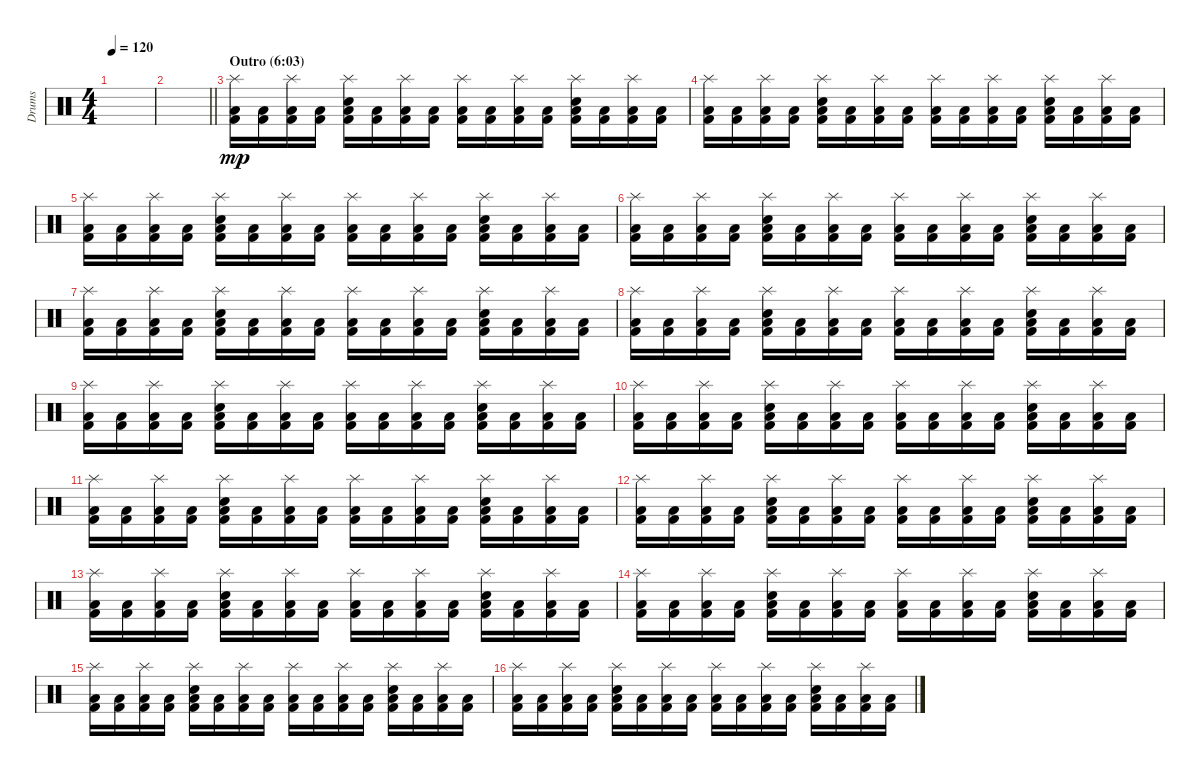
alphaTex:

\track ("Drums" "Drums") {instrument percussion}
\staff {score}
\articulation defaults
\ts (4 4)
\tempo 120
\clef neutral
\ks c
|
\barLineRight lightlight
|
\section ("" "Outro (6:03)")
("Splash (hit)" "Low Floor Tom (hit)" "Kick (hit) 2").16{dy mp volume 12} ("Low Floor Tom (hit)" "Kick (hit) 2").16 ("Splash (hit)" "Low Floor Tom (hit)" "Kick (hit) 2").16 ("Low Floor Tom (hit)" "Kick (hit) 2").16 ("Splash (hit)" "Snare (hit) 2" "Low Floor Tom (hit)" "Kick (hit) 2").16 ("Low Floor Tom (hit)" "Kick (hit) 2").16 ("Splash (hit)" "Low Floor Tom (hit)" "Kick (hit) 2").16 ("Low Floor Tom (hit)" "Kick (hit) 2").16 ("Splash (hit)" "Low Floor Tom (hit)" "Kick (hit) 2").16 ("Low Floor Tom (hit)" "Kick (hit) 2").16 ("Splash (hit)" "Low Floor Tom (hit)" "Kick (hit) 2").16 ("Low Floor Tom (hit)" "Kick (hit) 2").16 ("Splash (hit)" "Snare (hit) 2" "Low Floor Tom (hit)" "Kick (hit) 2").16 ("Low Floor Tom (hit)" "Kick (hit) 2").16 ("Splash (hit)" "Low Floor Tom (hit)" "Kick (hit) 2").16 ("Low Floor Tom (hit)" "Kick (hit) 2").16 |
("Splash (hit)" "Low Floor Tom (hit)" "Kick (hit) 2").16 ("Low Floor Tom (hit)" "Kick (hit) 2").16 ("Splash (hit)" "Low Floor Tom (hit)" "Kick (hit) 2").16 ("Low Floor Tom (hit)" "Kick (hit) 2").16 ("Splash (hit)" "Snare (hit) 2" "Low Floor Tom (hit)" "Kick (hit) 2").16 ("Low Floor Tom (hit)" "Kick (hit) 2").16 ("Splash (hit)" "Low Floor Tom (hit)" "Kick (hit) 2").16 ("Low Floor Tom (hit)" "Kick (hit) 2").16 ("Splash (hit)" "Low Floor Tom (hit)" "Kick (hit) 2").16 ("Low Floor Tom (hit)" "Kick (hit) 2").16 ("Splash (hit)" "Low Floor Tom (hit)" "Kick (hit) 2").16 ("Low Floor Tom (hit)" "Kick (hit) 2").16 ("Splash (hit)" "Snare (hit) 2" "Low Floor Tom (hit)" "Kick (hit) 2").16 ("Low Floor Tom (hit)" "Kick (hit) 2").16 ("Splash (hit)" "Low Floor Tom (hit)" "Kick (hit) 2").16 ("Low Floor Tom (hit)" "Kick (hit) 2").16 |
("Splash (hit)" "Low Floor Tom (hit)" "Kick (hit) 2").16 ("Low Floor Tom (hit)" "Kick (hit) 2").16 ("Splash (hit)" "Low Floor Tom (hit)" "Kick (hit) 2").16 ("Low Floor Tom (hit)" "Kick (hit) 2").16 ("Splash (hit)" "Snare (hit) 2" "Low Floor Tom (hit)" "Kick (hit) 2").16 ("Low Floor Tom (hit)" "Kick (hit) 2").16 ("Splash (hit)" "Low Floor Tom (hit)" "Kick (hit) 2").16 ("Low Floor Tom (hit)" "Kick (hit) 2").16 ("Splash (hit)" "Low Floor Tom (hit)" "Kick (hit) 2").16 ("Low Floor Tom (hit)" "Kick (hit) 2").16 ("Splash (hit)" "Low Floor Tom (hit)" "Kick (hit) 2").16 ("Low Floor Tom (hit)" "Kick (hit) 2").16 ("Splash (hit)" "Snare (hit) 2" "Low Floor Tom (hit)" "Kick (hit) 2").16 ("Low Floor Tom (hit)" "Kick (hit) 2").16 ("Splash (hit)" "Low Floor Tom (hit)" "Kick (hit) 2").16 ("Low Floor Tom (hit)" "Kick (hit) 2").16 |
("Splash (hit)" "Low Floor Tom (hit)" "Kick (hit) 2").16 ("Low Floor Tom (hit)" "Kick (hit) 2").16 ("Splash (hit)" "Low Floor Tom (hit)" "Kick (hit) 2").16 ("Low Floor Tom (hit)" "Kick (hit) 2").16 ("Splash (hit)" "Snare (hit) 2" "Low Floor Tom (hit)" "Kick (hit) 2").16 ("Low Floor Tom (hit)" "Kick (hit) 2").16 ("Splash (hit)" "Low Floor Tom (hit)" "Kick (hit) 2").16 ("Low Floor Tom (hit)" "Kick (hit) 2").16 ("Splash (hit)" "Low Floor Tom (hit)" "Kick (hit) 2").16 ("Low Floor Tom (hit)" "Kick (hit) 2").16 ("Splash (hit)" "Low Floor Tom (hit)" "Kick (hit) 2").16 ("Low Floor Tom (hit)" "Kick (hit) 2").16 ("Splash (hit)" "Snare (hit) 2" "Low Floor Tom (hit)" "Kick (hit) 2").16 ("Low Floor Tom (hit)" "Kick (hit) 2").16 ("Splash (hit)" "Low Floor Tom (hit)" "Kick (hit) 2").16 ("Low Floor Tom (hit)" "Kick (hit) 2").16 |
("Splash (hit)" "Low Floor Tom (hit)" "Kick (hit) 2").16 ("Low Floor Tom (hit)" "Kick (hit) 2").16 ("Splash (hit)" "Low Floor Tom (hit)" "Kick (hit) 2").16 ("Low Floor Tom (hit)" "Kick (hit) 2").16 ("Splash (hit)" "Snare (hit) 2" "Low Floor Tom (hit)" "Kick (hit) 2").16 ("Low Floor Tom (hit)" "Kick (hit) 2").16 ("Splash (hit)" "Low Floor Tom (hit)" "Kick (hit) 2").16 ("Low Floor Tom (hit)" "Kick (hit) 2").16 ("Splash (hit)" "Low Floor Tom (hit)" "Kick (hit) 2").16 ("Low Floor Tom (hit)" "Kick (hit) 2").16 ("Splash (hit)" "Low Floor Tom (hit)" "Kick (hit) 2").16 ("Low Floor Tom (hit)" "Kick (hit) 2").16 ("Splash (hit)" "Snare (hit) 2" "Low Floor Tom (hit)" "Kick (hit) 2").16 ("Low Floor Tom (hit)" "Kick (hit) 2").16 ("Splash (hit)" "Low Floor Tom (hit)" "Kick (hit) 2").16 ("Low Floor Tom (hit)" "Kick (hit) 2").16 |
("Splash (hit)" "Low Floor Tom (hit)" "Kick (hit) 2").16 ("Low Floor Tom (hit)" "Kick (hit) 2").16 ("Splash (hit)" "Low Floor Tom (hit)" "Kick (hit) 2").16 ("Low Floor Tom (hit)" "Kick (hit) 2").16 ("Splash (hit)" "Snare (hit) 2" "Low Floor Tom (hit)" "Kick (hit) 2").16 ("Low Floor Tom (hit)" "Kick (hit) 2").16 ("Splash (hit)" "Low Floor Tom (hit)" "Kick (hit) 2").16 ("Low Floor Tom (hit)" "Kick (hit) 2").16 ("Splash (hit)" "Low Floor Tom (hit)" "Kick (hit) 2").16 ("Low Floor Tom (hit)" "Kick (hit) 2").16 ("Splash (hit)" "Low Floor Tom (hit)" "Kick (hit) 2").16 ("Low Floor Tom (hit)" "Kick (hit) 2").16 ("Splash (hit)" "Snare (hit) 2" "Low Floor Tom (hit)" "Kick (hit) 2").16 ("Low Floor Tom (hit)" "Kick (hit) 2").16 ("Splash (hit)" "Low Floor Tom (hit)" "Kick (hit) 2").16 ("Low Floor Tom (hit)" "Kick (hit) 2").16 |
("Splash (hit)" "Low Floor Tom (hit)" "Kick (hit) 2").16 ("Low Floor Tom (hit)" "Kick (hit) 2").16 ("Splash (hit)" "Low Floor Tom (hit)" "Kick (hit) 2").16 ("Low Floor Tom (hit)" "Kick (hit) 2").16 ("Splash (hit)" "Snare (hit) 2" "Low Floor Tom (hit)" "Kick (hit) 2").16 ("Low Floor Tom (hit)" "Kick (hit) 2").16 ("Splash (hit)" "Low Floor Tom (hit)" "Kick (hit) 2").16 ("Low Floor Tom (hit)" "Kick (hit) 2").16 ("Splash (hit)" "Low Floor Tom (hit)" "Kick (hit) 2").16 ("Low Floor Tom (hit)" "Kick (hit) 2").16 ("Splash (hit)" "Low Floor Tom (hit)" "Kick (hit) 2").16 ("Low Floor Tom (hit)" "Kick (hit) 2").16 ("Splash (hit)" "Snare (hit) 2" "Low Floor Tom (hit)" "Kick (hit) 2").16 ("Low Floor Tom (hit)" "Kick (hit) 2").16 ("Splash (hit)" "Low Floor Tom (hit)" "Kick (hit) 2").16 ("Low Floor Tom (hit)" "Kick (hit) 2").16 |
("Splash (hit)" "Low Floor Tom (hit)" "Kick (hit) 2").16 ("Low Floor Tom (hit)" "Kick (hit) 2").16 ("Splash (hit)" "Low Floor Tom (hit)" "Kick (hit) 2").16 ("Low Floor Tom (hit)" "Kick (hit) 2").16 ("Splash (hit)" "Snare (hit) 2" "Low Floor Tom (hit)" "Kick (hit) 2").16 ("Low Floor Tom (hit)" "Kick (hit) 2").16 ("Splash (hit)" "Low Floor Tom (hit)" "Kick (hit) 2").16 ("Low Floor Tom (hit)" "Kick (hit) 2").16 ("Splash (hit)" "Low Floor Tom (hit)" "Kick (hit) 2").16 ("Low Floor Tom (hit)" "Kick (hit) 2").16 ("Splash (hit)" "Low Floor Tom (hit)" "Kick (hit) 2").16 ("Low Floor Tom (hit)" "Kick (hit) 2").16 ("Splash (hit)" "Snare (hit) 2" "Low Floor Tom (hit)" "Kick (hit) 2").16 ("Low Floor Tom (hit)" "Kick (hit) 2").16 ("Splash (hit)" "Low Floor Tom (hit)" "Kick (hit) 2").16 ("Low Floor Tom (hit)" "Kick (hit) 2").16 |
("Splash (hit)" "Low Floor Tom (hit)" "Kick (hit) 2").16 ("Low Floor Tom (hit)" "Kick (hit) 2").16 ("Splash (hit)" "Low Floor Tom (hit)" "Kick (hit) 2").16 ("Low Floor Tom (hit)" "Kick (hit) 2").16 ("Splash (hit)" "Snare (hit) 2" "Low Floor Tom (hit)" "Kick (hit) 2").16 ("Low Floor Tom (hit)" "Kick (hit) 2").16 ("Splash (hit)" "Low Floor Tom (hit)" "Kick (hit) 2").16 ("Low Floor Tom (hit)" "Kick (hit) 2").16 ("Splash (hit)" "Low Floor Tom (hit)" "Kick (hit) 2").16 ("Low Floor Tom (hit)" "Kick (hit) 2").16 ("Splash (hit)" "Low Floor Tom (hit)" "Kick (hit) 2").16 ("Low Floor Tom (hit)" "Kick (hit) 2").16 ("Splash (hit)" "Snare (hit) 2" "Low Floor Tom (hit)" "Kick (hit) 2").16 ("Low Floor Tom (hit)" "Kick (hit) 2").16 ("Splash (hit)" "Low Floor Tom (hit)" "Kick (hit) 2").16 ("Low Floor Tom (hit)" "Kick (hit) 2").16 |
("Splash (hit)" "Low Floor Tom (hit)" "Kick (hit) 2").16 ("Low Floor Tom (hit)" "Kick (hit) 2").16 ("Splash (hit)" "Low Floor Tom (hit)" "Kick (hit) 2").16 ("Low Floor Tom (hit)" "Kick (hit) 2").16 ("Splash (hit)" "Snare (hit) 2" "Low Floor Tom (hit)" "Kick (hit) 2").16 ("Low Floor Tom (hit)" "Kick (hit) 2").16 ("Splash (hit)" "Low Floor Tom (hit)" "Kick (hit) 2").16 ("Low Floor Tom (hit)" "Kick (hit) 2").16 ("Splash (hit)" "Low Floor Tom (hit)" "Kick (hit) 2").16 ("Low Floor Tom (hit)" "Kick (hit) 2").16 ("Splash (hit)" "Low Floor Tom (hit)" "Kick (hit) 2").16 ("Low Floor Tom (hit)" "Kick (hit) 2").16 ("Splash (hit)" "Snare (hit) 2" "Low Floor Tom (hit)" "Kick (hit) 2").16 ("Low Floor Tom (hit)" "Kick (hit) 2").16 ("Splash (hit)" "Low Floor Tom (hit)" "Kick (hit) 2").16 ("Low Floor Tom (hit)" "Kick (hit) 2").16 |
("Splash (hit)" "Low Floor Tom (hit)" "Kick (hit) 2").16 ("Low Floor Tom (hit)" "Kick (hit) 2").16 ("Splash (hit)" "Low Floor Tom (hit)" "Kick (hit) 2").16 ("Low Floor Tom (hit)" "Kick (hit) 2").16 ("Splash (hit)" "Snare (hit) 2" "Low Floor Tom (hit)" "Kick (hit) 2").16 ("Low Floor Tom (hit)" "Kick (hit) 2").16 ("Splash (hit)" "Low Floor Tom (hit)" "Kick (hit) 2").16 ("Low Floor Tom (hit)" "Kick (hit) 2").16 ("Splash (hit)" "Low Floor Tom (hit)" "Kick (hit) 2").16 ("Low Floor Tom (hit)" "Kick (hit) 2").16 ("Splash (hit)" "Low Floor Tom (hit)" "Kick (hit) 2").16 ("Low Floor Tom (hit)" "Kick (hit) 2").16 ("Splash (hit)" "Snare (hit) 2" "Low Floor Tom (hit)" "Kick (hit) 2").16 ("Low Floor Tom (hit)" "Kick (hit) 2").16 ("Splash (hit)" "Low Floor Tom (hit)" "Kick (hit) 2").16 ("Low Floor Tom (hit)" "Kick (hit) 2").16 |
("Splash (hit)" "Low Floor Tom (hit)" "Kick (hit) 2").16 ("Low Floor Tom (hit)" "Kick (hit) 2").16 ("Splash (hit)" "Low Floor Tom (hit)" "Kick (hit) 2").16 ("Low Floor Tom (hit)" "Kick (hit) 2").16 ("Splash (hit)" "Snare (hit) 2" "Low Floor Tom (hit)" "Kick (hit) 2").16 ("Low Floor Tom (hit)" "Kick (hit) 2").16 ("Splash (hit)" "Low Floor Tom (hit)" "Kick (hit) 2").16 ("Low Floor Tom (hit)" "Kick (hit) 2").16 ("Splash (hit)" "Low Floor Tom (hit)" "Kick (hit) 2").16 ("Low Floor Tom (hit)" "Kick (hit) 2").16 ("Splash (hit)" "Low Floor Tom (hit)" "Kick (hit) 2").16 ("Low Floor Tom (hit)" "Kick (hit) 2").16 ("Splash (hit)" "Snare (hit) 2" "Low Floor Tom (hit)" "Kick (hit) 2").16 ("Low Floor Tom (hit)" "Kick (hit) 2").16 ("Splash (hit)" "Low Floor Tom (hit)" "Kick (hit) 2").16 ("Low Floor Tom (hit)" "Kick (hit) 2").16 |
("Splash (hit)" "Low Floor Tom (hit)" "Kick (hit) 2").16 ("Low Floor Tom (hit)" "Kick (hit) 2").16 ("Splash (hit)" "Low Floor Tom (hit)" "Kick (hit) 2").16 ("Low Floor Tom (hit)" "Kick (hit) 2").16 ("Splash (hit)" "Snare (hit) 2" "Low Floor Tom (hit)" "Kick (hit) 2").16 ("Low Floor Tom (hit)" "Kick (hit) 2").16 ("Splash (hit)" "Low Floor Tom (hit)" "Kick (hit) 2").16 ("Low Floor Tom (hit)" "Kick (hit) 2").16 ("Splash (hit)" "Low Floor Tom (hit)" "Kick (hit) 2").16 ("Low Floor Tom (hit)" "Kick (hit) 2").16 ("Splash (hit)" "Low Floor Tom (hit)" "Kick (hit) 2").16 ("Low Floor Tom (hit)" "Kick (hit) 2").16 ("Splash (hit)" "Snare (hit) 2" "Low Floor Tom (hit)" "Kick (hit) 2").16 ("Low Floor Tom (hit)" "Kick (hit) 2").16 ("Splash (hit)" "Low Floor Tom (hit)" "Kick (hit) 2").16 ("Low Floor Tom (hit)" "Kick (hit) 2").16 |
("Splash (hit)" "Low Floor Tom (hit)" "Kick (hit) 2").16 ("Low Floor Tom (hit)" "Kick (hit) 2").16 ("Splash (hit)" "Low Floor Tom (hit)" "Kick (hit) 2").16 ("Low Floor Tom (hit)" "Kick (hit) 2").16 ("Splash (hit)" "Snare (hit) 2" "Low Floor Tom (hit)" "Kick (hit) 2").16 ("Low Floor Tom (hit)" "Kick (hit) 2").16 ("Splash (hit)" "Low Floor Tom (hit)" "Kick (hit) 2").16 ("Low Floor Tom (hit)" "Kick (hit) 2").16 ("Splash (hit)" "Low Floor Tom (hit)" "Kick (hit) 2").16 ("Low Floor Tom (hit)" "Kick (hit) 2").16 ("Splash (hit)" "Low Floor Tom (hit)" "Kick (hit) 2").16 ("Low Floor Tom (hit)" "Kick (hit) 2").16 ("Splash (hit)" "Snare (hit) 2" "Low Floor Tom (hit)" "Kick (hit) 2").16 ("Low Floor Tom (hit)" "Kick (hit) 2").16 ("Splash (hit)" "Low Floor Tom (hit)" "Kick (hit) 2").16 ("Low Floor Tom (hit)" "Kick (hit) 2").16
